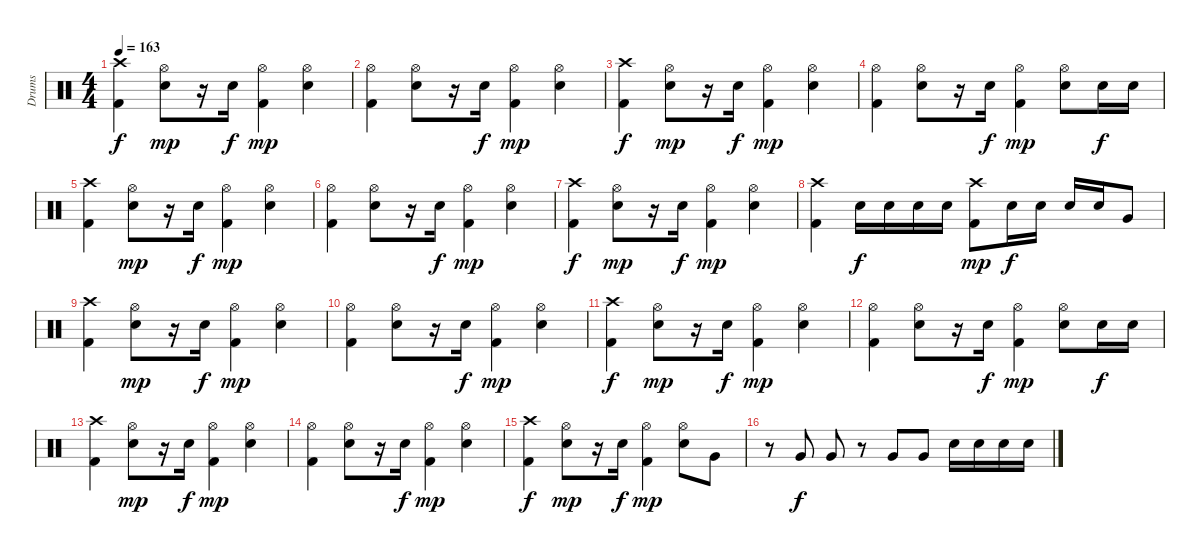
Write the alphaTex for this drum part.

\track ("Drums" "Drums") {instrument percussion}
\staff {score}
\articulation defaults
\ts (4 4)
\tempo 163
\clef neutral
\ks c
("Crash high (hit)" "Kick (hit) 2").4{dy f} ("Hi-Hat (open)" "Snare (hit) 2").8{dy mp} r.16 "Snare (hit) 2".16{dy f} ("Hi-Hat (open)" "Kick (hit) 2").4{dy mp} ("Hi-Hat (open)" "Snare (hit) 2").4 |
("Hi-Hat (open)" "Kick (hit) 2").4 ("Hi-Hat (open)" "Snare (hit) 2").8 r.16 "Snare (hit) 2".16{dy f} ("Hi-Hat (open)" "Kick (hit) 2").4{dy mp} ("Hi-Hat (open)" "Snare (hit) 2").4 |
("Crash high (hit)" "Kick (hit) 2").4{dy f} ("Hi-Hat (open)" "Snare (hit) 2").8{dy mp} r.16 "Snare (hit) 2".16{dy f} ("Hi-Hat (open)" "Kick (hit) 2").4{dy mp} ("Hi-Hat (open)" "Snare (hit) 2").4 |
("Hi-Hat (open)" "Kick (hit) 2").4 ("Hi-Hat (open)" "Snare (hit) 2").8 r.16 "Snare (hit) 2".16{dy f} ("Hi-Hat (open)" "Kick (hit) 2").4{dy mp} ("Hi-Hat (open)" "Snare (hit) 2").8 "Snare (hit) 2".16{dy f} "Snare (hit) 2".16 |
("Crash high (hit)" "Kick (hit) 2").4 ("Hi-Hat (open)" "Snare (hit) 2").8{dy mp} r.16 "Snare (hit) 2".16{dy f} ("Hi-Hat (open)" "Kick (hit) 2").4{dy mp} ("Hi-Hat (open)" "Snare (hit) 2").4 |
("Hi-Hat (open)" "Kick (hit) 2").4 ("Hi-Hat (open)" "Snare (hit) 2").8 r.16 "Snare (hit) 2".16{dy f} ("Hi-Hat (open)" "Kick (hit) 2").4{dy mp} ("Hi-Hat (open)" "Snare (hit) 2").4 |
("Crash high (hit)" "Kick (hit) 2").4{dy f} ("Hi-Hat (open)" "Snare (hit) 2").8{dy mp} r.16 "Snare (hit) 2".16{dy f} ("Hi-Hat (open)" "Kick (hit) 2").4{dy mp} ("Hi-Hat (open)" "Snare (hit) 2").4 |
("Crash high (hit)" "Kick (hit) 2").4 "Snare (hit) 2".16{dy f} "Snare (hit) 2".16 "Snare (hit) 2".16 "Snare (hit) 2".16 ("Crash high (hit)" "Kick (hit) 2").8{dy mp} "Snare (hit) 2".16{dy f} "Snare (hit) 2".16 "Snare (hit) 2".16 "Snare (hit) 2".16 "Very Low Tom (hit)".8 |
("Crash high (hit)" "Kick (hit) 2").4 ("Hi-Hat (open)" "Snare (hit) 2").8{dy mp} r.16 "Snare (hit) 2".16{dy f} ("Hi-Hat (open)" "Kick (hit) 2").4{dy mp} ("Hi-Hat (open)" "Snare (hit) 2").4 |
("Hi-Hat (open)" "Kick (hit) 2").4 ("Hi-Hat (open)" "Snare (hit) 2").8 r.16 "Snare (hit) 2".16{dy f} ("Hi-Hat (open)" "Kick (hit) 2").4{dy mp} ("Hi-Hat (open)" "Snare (hit) 2").4 |
("Crash high (hit)" "Kick (hit) 2").4{dy f} ("Hi-Hat (open)" "Snare (hit) 2").8{dy mp} r.16 "Snare (hit) 2".16{dy f} ("Hi-Hat (open)" "Kick (hit) 2").4{dy mp} ("Hi-Hat (open)" "Snare (hit) 2").4 |
("Hi-Hat (open)" "Kick (hit) 2").4 ("Hi-Hat (open)" "Snare (hit) 2").8 r.16 "Snare (hit) 2".16{dy f} ("Hi-Hat (open)" "Kick (hit) 2").4{dy mp} ("Hi-Hat (open)" "Snare (hit) 2").8 "Snare (hit) 2".16{dy f} "Snare (hit) 2".16 |
("Crash high (hit)" "Kick (hit) 2").4 ("Hi-Hat (open)" "Snare (hit) 2").8{dy mp} r.16 "Snare (hit) 2".16{dy f} ("Hi-Hat (open)" "Kick (hit) 2").4{dy mp} ("Hi-Hat (open)" "Snare (hit) 2").4 |
("Hi-Hat (open)" "Kick (hit) 2").4 ("Hi-Hat (open)" "Snare (hit) 2").8 r.16 "Snare (hit) 2".16{dy f} ("Hi-Hat (open)" "Kick (hit) 2").4{dy mp} ("Hi-Hat (open)" "Snare (hit) 2").4 |
("Crash high (hit)" "Kick (hit) 2").4{dy f} ("Hi-Hat (open)" "Snare (hit) 2").8{dy mp} r.16 "Snare (hit) 2".16{dy f} ("Hi-Hat (open)" "Kick (hit) 2").4{dy mp} ("Hi-Hat (open)" "Snare (hit) 2").8 "Very Low Tom (hit)".8 |
r.8 "Very Low Tom (hit)".8{dy f} "Very Low Tom (hit)".8 r.8 "Very Low Tom (hit)".8 "Very Low Tom (hit)".8 "Snare (hit) 2".16 "Snare (hit) 2".16 "Snare (hit) 2".16 "Snare (hit) 2".16
